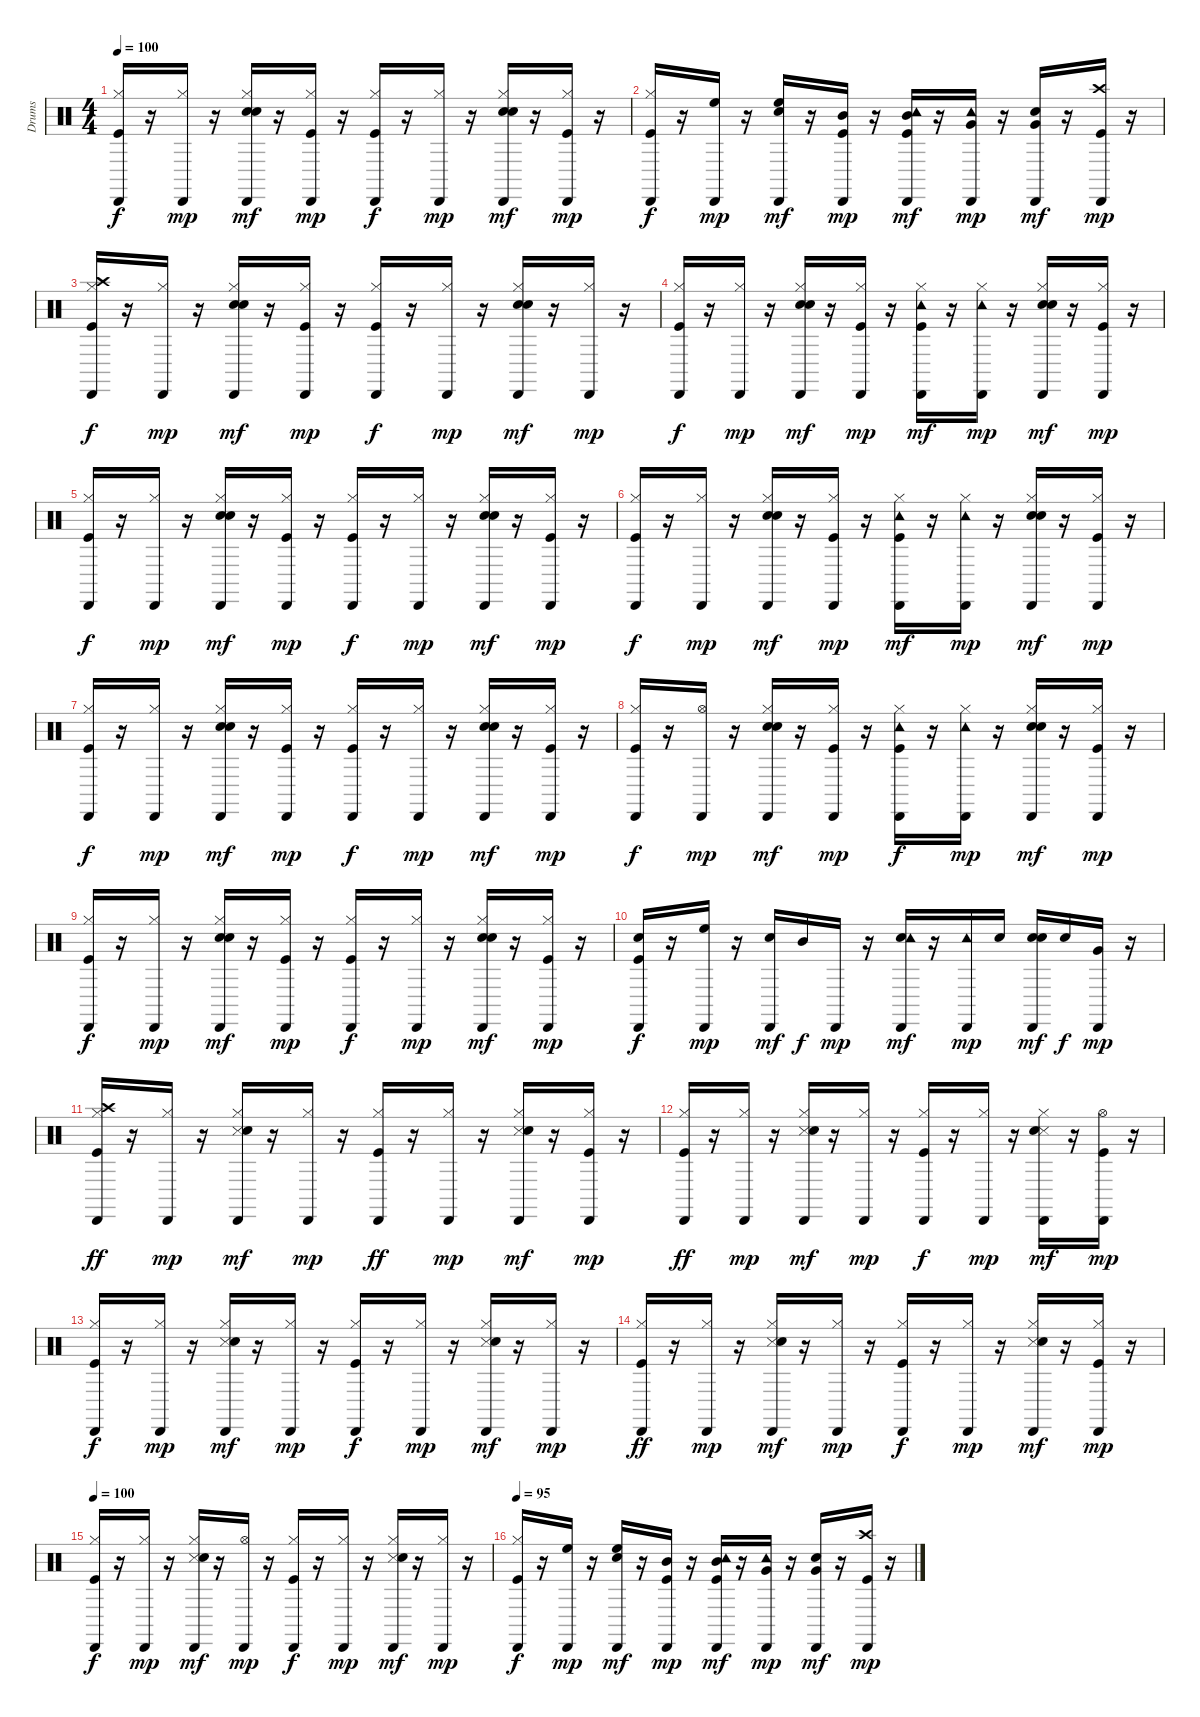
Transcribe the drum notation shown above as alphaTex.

\track ("Drums" "Drums") {instrument percussion}
\staff {score}
\articulation defaults
\ts (4 4)
\tempo 100
\clef neutral
\ks c
("Kick (hit)" "Hi-Hat (closed)" "Cabasa (hit)").16{dy f} r.16 ("Hi-Hat (closed)" "Cabasa (hit)").16{dy mp} r.16 ("Snare (hit) 2" "Hi-Hat (closed)" "Hand Clap (hit)" "Cabasa (hit)").16{dy mf} r.16 ("Kick (hit)" "Hi-Hat (closed)" "Cabasa (hit)").16{dy mp} r.16 ("Kick (hit)" "Hi-Hat (closed)" "Cabasa (hit)").16{dy f} r.16 ("Hi-Hat (closed)" "Cabasa (hit)").16{dy mp} r.16 ("Snare (hit) 2" "Hi-Hat (closed)" "Hand Clap (hit)" "Cabasa (hit)").16{dy mf} r.16 ("Kick (hit)" "Hi-Hat (closed)" "Cabasa (hit)").16{dy mp} r.16 |
("Kick (hit)" "Hi-Hat (closed)" "Cabasa (hit)").16{dy f} r.16 ("High Floor Tom (hit)" "Cabasa (hit)").16{dy mp} r.16 ("High Floor Tom (hit)" "Hand Clap (hit)" "Cabasa (hit)").16{dy mf} r.16 ("Kick (hit)" "Mid Tom (hit)" "Cabasa (hit)").16{dy mp} r.16 ("Kick (hit)" "Mid Tom (hit)" "Tambourine (hit)" "Cabasa (hit)").16{dy mf} r.16 ("Very Low Tom (hit)" "Tambourine (hit)" "Cabasa (hit)").16{dy mp} r.16 ("Very Low Tom (hit)" "Hand Clap (hit)" "Cabasa (hit)").16{dy mf} r.16 ("Kick (hit)" "Crash high (hit)" "Cabasa (hit)").16{dy mp} r.16 |
("Kick (hit)" "Hi-Hat (closed)" "Crash high (hit)" "Cabasa (hit)").16{dy f} r.16 ("Hi-Hat (closed)" "Cabasa (hit)").16{dy mp} r.16 ("Snare (hit) 2" "Hi-Hat (closed)" "Hand Clap (hit)" "Cabasa (hit)").16{dy mf} r.16 ("Kick (hit)" "Hi-Hat (closed)" "Cabasa (hit)").16{dy mp} r.16 ("Kick (hit)" "Hi-Hat (closed)" "Cabasa (hit)").16{dy f} r.16 ("Hi-Hat (closed)" "Cabasa (hit)").16{dy mp} r.16 ("Snare (hit) 2" "Hi-Hat (closed)" "Hand Clap (hit)" "Cabasa (hit)").16{dy mf} r.16 ("Hi-Hat (closed)" "Cabasa (hit)").16{dy mp} r.16 |
("Kick (hit)" "Hi-Hat (closed)" "Cabasa (hit)").16{dy f} r.16 ("Hi-Hat (closed)" "Cabasa (hit)").16{dy mp} r.16 ("Snare (hit) 2" "Hi-Hat (closed)" "Hand Clap (hit)" "Cabasa (hit)").16{dy mf} r.16 ("Kick (hit)" "Hi-Hat (closed)" "Cabasa (hit)").16{dy mp} r.16 ("Kick (hit)" "Hi-Hat (closed)" "Tambourine (hit)" "Cabasa (hit)").16{dy mf} r.16 ("Hi-Hat (closed)" "Tambourine (hit)" "Cabasa (hit)").16{dy mp} r.16 ("Snare (hit) 2" "Hi-Hat (closed)" "Hand Clap (hit)" "Cabasa (hit)").16{dy mf} r.16 ("Kick (hit)" "Hi-Hat (closed)" "Cabasa (hit)").16{dy mp} r.16 |
("Kick (hit)" "Hi-Hat (closed)" "Cabasa (hit)").16{dy f} r.16 ("Hi-Hat (closed)" "Cabasa (hit)").16{dy mp} r.16 ("Snare (hit) 2" "Hi-Hat (closed)" "Hand Clap (hit)" "Cabasa (hit)").16{dy mf} r.16 ("Kick (hit)" "Hi-Hat (closed)" "Cabasa (hit)").16{dy mp} r.16 ("Kick (hit)" "Hi-Hat (closed)" "Cabasa (hit)").16{dy f} r.16 ("Hi-Hat (closed)" "Cabasa (hit)").16{dy mp} r.16 ("Snare (hit) 2" "Hi-Hat (closed)" "Hand Clap (hit)" "Cabasa (hit)").16{dy mf} r.16 ("Kick (hit)" "Hi-Hat (closed)" "Cabasa (hit)").16{dy mp} r.16 |
("Kick (hit)" "Hi-Hat (closed)" "Cabasa (hit)").16{dy f} r.16 ("Hi-Hat (closed)" "Cabasa (hit)").16{dy mp} r.16 ("Snare (hit) 2" "Hi-Hat (closed)" "Hand Clap (hit)" "Cabasa (hit)").16{dy mf} r.16 ("Kick (hit)" "Hi-Hat (closed)" "Cabasa (hit)").16{dy mp} r.16 ("Kick (hit)" "Hi-Hat (closed)" "Tambourine (hit)" "Cabasa (hit)").16{dy mf} r.16 ("Hi-Hat (closed)" "Tambourine (hit)" "Cabasa (hit)").16{dy mp} r.16 ("Snare (hit) 2" "Hi-Hat (closed)" "Hand Clap (hit)" "Cabasa (hit)").16{dy mf} r.16 ("Kick (hit)" "Hi-Hat (closed)" "Cabasa (hit)").16{dy mp} r.16 |
("Kick (hit)" "Hi-Hat (closed)" "Cabasa (hit)").16{dy f} r.16 ("Hi-Hat (closed)" "Cabasa (hit)").16{dy mp} r.16 ("Snare (hit) 2" "Hi-Hat (closed)" "Hand Clap (hit)" "Cabasa (hit)").16{dy mf} r.16 ("Kick (hit)" "Hi-Hat (closed)" "Cabasa (hit)").16{dy mp} r.16 ("Kick (hit)" "Hi-Hat (closed)" "Cabasa (hit)").16{dy f} r.16 ("Hi-Hat (closed)" "Cabasa (hit)").16{dy mp} r.16 ("Snare (hit) 2" "Hi-Hat (closed)" "Hand Clap (hit)" "Cabasa (hit)").16{dy mf} r.16 ("Kick (hit)" "Hi-Hat (closed)" "Cabasa (hit)").16{dy mp} r.16 |
("Kick (hit)" "Hi-Hat (closed)" "Cabasa (hit)").16{dy f} r.16 ("Hi-Hat (open)" "Cabasa (hit)").16{dy mp} r.16 ("Snare (hit) 2" "Hi-Hat (closed)" "Hand Clap (hit)" "Cabasa (hit)").16{dy mf} r.16 ("Kick (hit)" "Hi-Hat (closed)" "Cabasa (hit)").16{dy mp} r.16 ("Kick (hit)" "Hi-Hat (closed)" "Tambourine (hit)" "Cabasa (hit)").16{dy f} r.16 ("Hi-Hat (closed)" "Tambourine (hit)" "Cabasa (hit)").16{dy mp} r.16 ("Snare (hit) 2" "Hi-Hat (closed)" "Hand Clap (hit)" "Cabasa (hit)").16{dy mf} r.16 ("Kick (hit)" "Hi-Hat (closed)" "Cabasa (hit)").16{dy mp} r.16 |
("Kick (hit)" "Hi-Hat (closed)" "Cabasa (hit)").16{dy f} r.16 ("Hi-Hat (closed)" "Cabasa (hit)").16{dy mp} r.16 ("Snare (hit) 2" "Hi-Hat (closed)" "Hand Clap (hit)" "Cabasa (hit)").16{dy mf} r.16 ("Kick (hit)" "Hi-Hat (closed)" "Cabasa (hit)").16{dy mp} r.16 ("Kick (hit)" "Hi-Hat (closed)" "Cabasa (hit)").16{dy f} r.16 ("Hi-Hat (closed)" "Cabasa (hit)").16{dy mp} r.16 ("Snare (hit) 2" "Hi-Hat (closed)" "Hand Clap (hit)" "Cabasa (hit)").16{dy mf} r.16 ("Kick (hit)" "Hi-Hat (closed)" "Cabasa (hit)").16{dy mp} r.16 |
("Kick (hit)" "Snare (hit) 2" "Cabasa (hit)").16{dy f} r.16 ("High Floor Tom (hit)" "Cabasa (hit)").16{dy mp} r.16 ("Hand Clap (hit)" "Cabasa (hit)").16{dy mf} "Mid Tom (hit)".16{dy f} "Cabasa (hit)".16{dy mp} r.16 ("Snare (hit) 2" "Tambourine (hit)" "Cabasa (hit)").16{dy mf} r.16 ("Tambourine (hit)" "Cabasa (hit)").16{dy mp} "Snare (hit) 2".16 ("Snare (hit) 2" "Hand Clap (hit)" "Cabasa (hit)").16{dy mf} "Snare (hit) 2".16{dy f} ("Very Low Tom (hit)" "Cabasa (hit)").16{dy mp} r.16 |
("Kick (hit)" "Hi-Hat (closed)" "Crash high (hit)" "Cabasa (hit)").16{dy ff} r.16 ("Hi-Hat (closed)" "Cabasa (hit)").16{dy mp} r.16 ("Hi-Hat (closed)" "Snare (side stick) 3" "Hand Clap (hit)" "Cabasa (hit)").16{dy mf} r.16 ("Hi-Hat (closed)" "Cabasa (hit)").16{dy mp} r.16 ("Kick (hit)" "Hi-Hat (closed)" "Cabasa (hit)").16{dy ff} r.16 ("Hi-Hat (closed)" "Cabasa (hit)").16{dy mp} r.16 ("Hi-Hat (closed)" "Snare (side stick) 3" "Hand Clap (hit)" "Cabasa (hit)").16{dy mf} r.16 ("Kick (hit)" "Hi-Hat (closed)" "Cabasa (hit)").16{dy mp} r.16 |
("Kick (hit)" "Hi-Hat (closed)" "Cabasa (hit)").16{dy ff} r.16 ("Hi-Hat (closed)" "Cabasa (hit)").16{dy mp} r.16 ("Hi-Hat (closed)" "Snare (side stick) 3" "Hand Clap (hit)" "Cabasa (hit)").16{dy mf} r.16 ("Hi-Hat (closed)" "Cabasa (hit)").16{dy mp} r.16 ("Kick (hit)" "Hi-Hat (closed)" "Cabasa (hit)").16{dy f} r.16 ("Hi-Hat (closed)" "Cabasa (hit)").16{dy mp} r.16 ("Hi-Hat (closed)" "Snare (side stick) 3" "Hand Clap (hit)" "Cabasa (hit)").16{dy mf} r.16 ("Kick (hit)" "Hi-Hat (open)" "Cabasa (hit)").16{dy mp} r.16 |
("Kick (hit)" "Hi-Hat (closed)" "Cabasa (hit)").16{dy f} r.16 ("Hi-Hat (closed)" "Cabasa (hit)").16{dy mp} r.16 ("Hi-Hat (closed)" "Snare (side stick) 3" "Hand Clap (hit)" "Cabasa (hit)").16{dy mf} r.16 ("Hi-Hat (closed)" "Cabasa (hit)").16{dy mp} r.16 ("Kick (hit)" "Hi-Hat (closed)" "Cabasa (hit)").16{dy f} r.16 ("Hi-Hat (closed)" "Cabasa (hit)").16{dy mp} r.16 ("Hi-Hat (closed)" "Snare (side stick) 3" "Hand Clap (hit)" "Cabasa (hit)").16{dy mf} r.16 ("Hi-Hat (closed)" "Cabasa (hit)").16{dy mp} r.16 |
("Kick (hit)" "Hi-Hat (closed)" "Cabasa (hit)").16{dy ff} r.16 ("Hi-Hat (closed)" "Cabasa (hit)").16{dy mp} r.16 ("Hi-Hat (closed)" "Snare (side stick) 3" "Hand Clap (hit)" "Cabasa (hit)").16{dy mf} r.16 ("Hi-Hat (closed)" "Cabasa (hit)").16{dy mp} r.16 ("Kick (hit)" "Hi-Hat (closed)" "Cabasa (hit)").16{dy f} r.16 ("Hi-Hat (closed)" "Cabasa (hit)").16{dy mp} r.16 ("Hi-Hat (closed)" "Snare (side stick) 3" "Hand Clap (hit)" "Cabasa (hit)").16{dy mf} r.16 ("Kick (hit)" "Hi-Hat (closed)" "Cabasa (hit)").16{dy mp} r.16 |
\tempo 100
("Kick (hit)" "Hi-Hat (closed)" "Cabasa (hit)").16{dy f} r.16 ("Hi-Hat (closed)" "Cabasa (hit)").16{dy mp} r.16 ("Hi-Hat (closed)" "Snare (side stick) 3" "Hand Clap (hit)" "Cabasa (hit)").16{dy mf} r.16 ("Hi-Hat (open)" "Cabasa (hit)").16{dy mp} r.16 ("Kick (hit)" "Hi-Hat (closed)" "Cabasa (hit)").16{dy f} r.16 ("Hi-Hat (closed)" "Cabasa (hit)").16{dy mp} r.16 ("Hi-Hat (closed)" "Snare (side stick) 3" "Hand Clap (hit)" "Cabasa (hit)").16{dy mf} r.16 ("Hi-Hat (closed)" "Cabasa (hit)").16{dy mp} r.16 |
\tempo 95
("Kick (hit)" "Hi-Hat (closed)" "Cabasa (hit)").16{dy f} r.16 ("High Floor Tom (hit)" "Cabasa (hit)").16{dy mp} r.16 ("High Floor Tom (hit)" "Hand Clap (hit)" "Cabasa (hit)").16{dy mf} r.16 ("Kick (hit)" "Mid Tom (hit)" "Cabasa (hit)").16{dy mp} r.16 ("Kick (hit)" "Mid Tom (hit)" "Tambourine (hit)" "Cabasa (hit)").16{dy mf} r.16 ("Very Low Tom (hit)" "Tambourine (hit)" "Cabasa (hit)").16{dy mp} r.16 ("Very Low Tom (hit)" "Hand Clap (hit)" "Cabasa (hit)").16{dy mf} r.16 ("Kick (hit)" "Crash high (hit)" "Cabasa (hit)").16{dy mp} r.16
